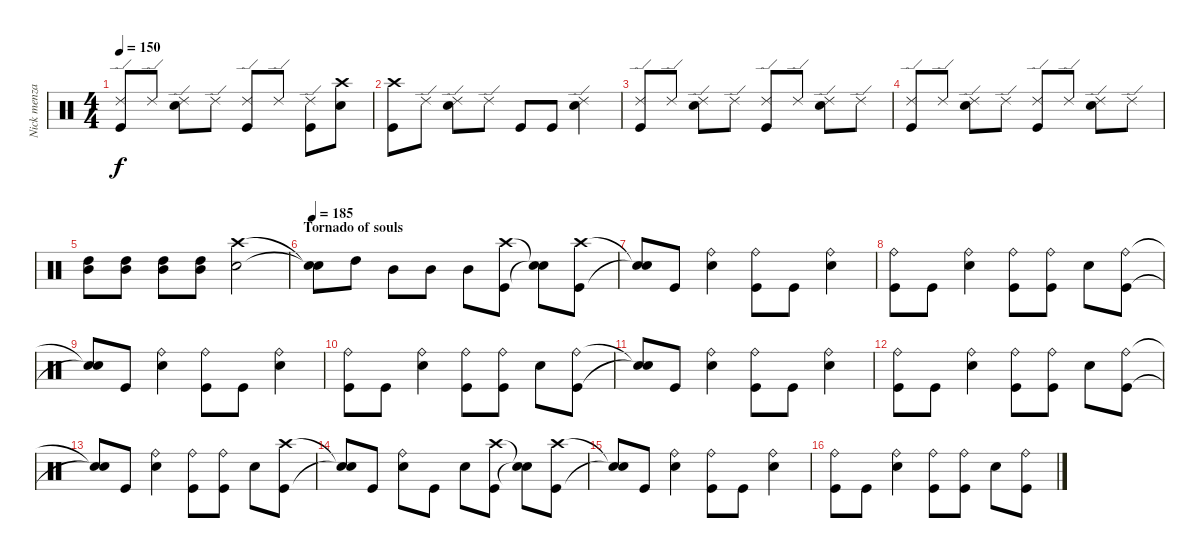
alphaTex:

\track ("Nick menza/Jimmy de grasso" "Nick menza") {instrument percussion}
\staff {score}
\articulation defaults
\ts (4 4)
\tempo 150
\clef neutral
\ks c
("Ride (edge) 2" "Kick (hit)").8{dy f} "Ride (edge) 2".8 ("Ride (edge) 2" "Snare (hit) 2").8 "Ride (edge) 2".8 ("Ride (edge) 2" "Kick (hit)").8 "Ride (edge) 2".8 ("Ride (edge) 2" "Kick (hit)").8 ("Crash high (hit)" "Snare (hit) 2").8 |
("Crash high (hit)" "Kick (hit)").8 "Ride (edge) 2".8 ("Ride (edge) 2" "Snare (hit) 2").8 "Ride (edge) 2".8 "Kick (hit)".8 "Kick (hit)".8 ("Ride (edge) 2" "Snare (hit) 2").4 |
("Ride (edge) 2" "Kick (hit)").8 "Ride (edge) 2".8 ("Ride (edge) 2" "Snare (hit) 2").8 "Ride (edge) 2".8 ("Ride (edge) 2" "Kick (hit)").8 "Ride (edge) 2".8 ("Ride (edge) 2" "Snare (hit) 2").8 "Ride (edge) 2".8 |
("Ride (edge) 2" "Kick (hit)").8 "Ride (edge) 2".8 ("Ride (edge) 2" "Snare (hit) 2").8 "Ride (edge) 2".8 ("Ride (edge) 2" "Kick (hit)").8 "Ride (edge) 2".8 ("Ride (edge) 2" "Snare (hit) 2").8 "Ride (edge) 2".8 |
("High Tom (hit)" "Mid Tom (hit)").8 ("High Tom (hit)" "Mid Tom (hit)").8 ("High Tom (hit)" "Mid Tom (hit)").8 ("High Tom (hit)" "Mid Tom (hit)").8 ("Crash high (hit)" "Snare (hit) 2").2 |
\section ("" "Tornado of souls")
\tempo 185
("Snare (hit)"{t} "Snare (hit)"{t}).8 "High Tom (hit)".8 "Mid Tom (hit)".8 "Mid Tom (hit)".8 "Mid Tom (hit)".8 ("Kick (hit)" "Crash high (hit)").8 ("Snare (hit)"{t} "Snare (hit)"{t}).8 ("Kick (hit)" "Crash high (hit)").8 |
("Snare (hit)"{t} "Snare (hit)"{t}).8 "Kick (hit)".8 ("Ride (bell)" "Snare (hit) 2").4 ("Kick (hit)" "Ride (bell)").8 "Kick (hit)".8 ("Ride (bell)" "Snare (hit) 2").4 |
("Kick (hit)" "Ride (bell)").8 "Kick (hit)".8 ("Ride (bell)" "Snare (hit) 2").4 ("Kick (hit)" "Ride (bell)").8 ("Kick (hit)" "Ride (bell)").8 "Snare (hit) 2".8 ("Kick (hit)" "Ride (bell)").8 |
("Snare (hit)"{t} "Snare (hit)"{t}).8 "Kick (hit)".8 ("Ride (bell)" "Snare (hit) 2").4 ("Kick (hit)" "Ride (bell)").8 "Kick (hit)".8 ("Ride (bell)" "Snare (hit) 2").4 |
("Kick (hit)" "Ride (bell)").8 "Kick (hit)".8 ("Ride (bell)" "Snare (hit) 2").4 ("Kick (hit)" "Ride (bell)").8 ("Kick (hit)" "Ride (bell)").8 "Snare (hit) 2".8 ("Kick (hit)" "Ride (bell)").8 |
("Snare (hit)"{t} "Snare (hit)"{t}).8 "Kick (hit)".8 ("Ride (bell)" "Snare (hit) 2").4 ("Kick (hit)" "Ride (bell)").8 "Kick (hit)".8 ("Ride (bell)" "Snare (hit) 2").4 |
("Kick (hit)" "Ride (bell)").8 "Kick (hit)".8 ("Ride (bell)" "Snare (hit) 2").4 ("Kick (hit)" "Ride (bell)").8 ("Kick (hit)" "Ride (bell)").8 "Snare (hit) 2".8 ("Kick (hit)" "Ride (bell)").8 |
("Snare (hit)"{t} "Snare (hit)"{t}).8 "Kick (hit)".8 ("Ride (bell)" "Snare (hit) 2").4 ("Kick (hit)" "Ride (bell)").8 ("Kick (hit)" "Ride (bell)").8 "Snare (hit) 2".8 ("Kick (hit)" "Crash high (hit)").8 |
("Snare (hit)"{t} "Snare (hit)"{t}).8 "Kick (hit)".8 ("Ride (bell)" "Snare (hit) 2").8 "Kick (hit)".8 "Snare (hit) 2".8 ("Kick (hit)" "Crash high (hit)").8 ("Snare (hit)"{t} "Snare (hit)"{t}).8 ("Kick (hit)" "Crash high (hit)").8 |
("Snare (hit)"{t} "Snare (hit)"{t}).8 "Kick (hit)".8 ("Ride (bell)" "Snare (hit) 2").4 ("Kick (hit)" "Ride (bell)").8 "Kick (hit)".8 ("Ride (bell)" "Snare (hit) 2").4 |
("Kick (hit)" "Ride (bell)").8 "Kick (hit)".8 ("Ride (bell)" "Snare (hit) 2").4 ("Kick (hit)" "Ride (bell)").8 ("Kick (hit)" "Ride (bell)").8 "Snare (hit) 2".8 ("Kick (hit)" "Ride (bell)").8
